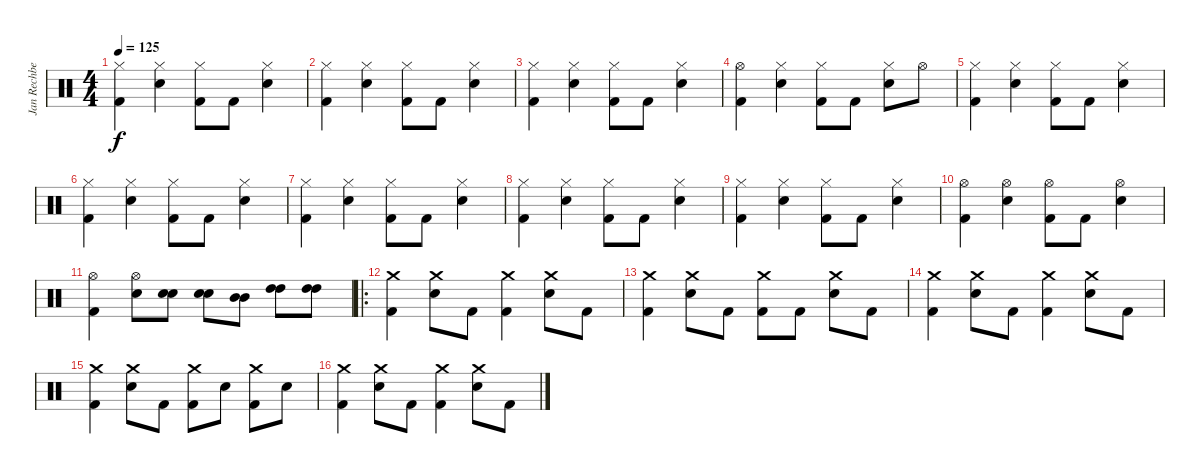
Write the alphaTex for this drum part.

\track ("Jan Rechberger" "Jan Rechbe") {instrument percussion}
\staff {score}
\articulation defaults
\ts (4 4)
\tempo 125
\clef neutral
\ks c
("Hi-Hat (closed)" "Kick (hit) 2").4{dy f} ("Hi-Hat (closed)" "Electric Snare (hit)").4 ("Hi-Hat (closed)" "Kick (hit) 2").8 "Kick (hit) 2".8 ("Hi-Hat (closed)" "Electric Snare (hit)").4 |
("Hi-Hat (closed)" "Kick (hit) 2").4 ("Hi-Hat (closed)" "Electric Snare (hit)").4 ("Hi-Hat (closed)" "Kick (hit) 2").8 "Kick (hit) 2".8 ("Hi-Hat (closed)" "Electric Snare (hit)").4 |
("Hi-Hat (closed)" "Kick (hit) 2").4 ("Hi-Hat (closed)" "Electric Snare (hit)").4 ("Hi-Hat (closed)" "Kick (hit) 2").8 "Kick (hit) 2".8 ("Hi-Hat (closed)" "Electric Snare (hit)").4 |
("Hi-Hat (open)" "Kick (hit) 2").4 ("Hi-Hat (closed)" "Electric Snare (hit)").4 ("Hi-Hat (closed)" "Kick (hit) 2").8 "Kick (hit) 2".8 ("Hi-Hat (closed)" "Electric Snare (hit)").8 "Hi-Hat (open)".8 |
("Hi-Hat (closed)" "Kick (hit) 2").4 ("Hi-Hat (closed)" "Electric Snare (hit)").4 ("Hi-Hat (closed)" "Kick (hit) 2").8 "Kick (hit) 2".8 ("Hi-Hat (closed)" "Electric Snare (hit)").4 |
("Hi-Hat (closed)" "Kick (hit) 2").4 ("Hi-Hat (closed)" "Electric Snare (hit)").4 ("Hi-Hat (closed)" "Kick (hit) 2").8 "Kick (hit) 2".8 ("Hi-Hat (closed)" "Electric Snare (hit)").4 |
("Hi-Hat (closed)" "Kick (hit) 2").4 ("Hi-Hat (closed)" "Electric Snare (hit)").4 ("Hi-Hat (closed)" "Kick (hit) 2").8 "Kick (hit) 2".8 ("Hi-Hat (closed)" "Electric Snare (hit)").4 |
("Hi-Hat (closed)" "Kick (hit) 2").4 ("Hi-Hat (closed)" "Electric Snare (hit)").4 ("Hi-Hat (closed)" "Kick (hit) 2").8 "Kick (hit) 2".8 ("Hi-Hat (closed)" "Electric Snare (hit)").4 |
("Hi-Hat (closed)" "Kick (hit) 2").4 ("Hi-Hat (closed)" "Electric Snare (hit)").4 ("Hi-Hat (closed)" "Kick (hit) 2").8 "Kick (hit) 2".8 ("Hi-Hat (closed)" "Electric Snare (hit)").4 |
("Hi-Hat (open)" "Kick (hit) 2").4 ("Hi-Hat (open)" "Electric Snare (hit)").4 ("Hi-Hat (open)" "Kick (hit) 2").8 "Kick (hit) 2".8 ("Hi-Hat (open)" "Electric Snare (hit)").4 |
("Hi-Hat (open)" "Kick (hit) 2").4 ("Hi-Hat (open)" "Electric Snare (hit)").8 ("Electric Snare (hit)" "Electric Snare (hit)").8 ("Electric Snare (hit)" "Electric Snare (hit)").8 ("Mid Tom (hit)" "Mid Tom (hit)").8 ("High Tom (hit)" "High Tom (hit)").8 ("High Tom (hit)" "High Tom (hit)").8 |
\ro
("Crash medium (hit)" "Kick (hit) 2").4 ("Crash medium (hit)" "Electric Snare (hit)").8 "Kick (hit) 2".8 ("Crash medium (hit)" "Kick (hit) 2").4 ("Crash medium (hit)" "Electric Snare (hit)").8 "Kick (hit) 2".8 |
("Crash medium (hit)" "Kick (hit) 2").4 ("Crash medium (hit)" "Electric Snare (hit)").8 "Kick (hit) 2".8 ("Crash medium (hit)" "Kick (hit) 2").8 "Kick (hit) 2".8 ("Crash medium (hit)" "Electric Snare (hit)").8 "Kick (hit) 2".8 |
("Crash medium (hit)" "Kick (hit) 2").4 ("Crash medium (hit)" "Electric Snare (hit)").8 "Kick (hit) 2".8 ("Crash medium (hit)" "Kick (hit) 2").4 ("Crash medium (hit)" "Electric Snare (hit)").8 "Kick (hit) 2".8 |
("Crash medium (hit)" "Kick (hit) 2").4 ("Crash medium (hit)" "Electric Snare (hit)").8 "Kick (hit) 2".8 ("Crash medium (hit)" "Kick (hit) 2").8 "Electric Snare (hit)".8 ("Crash medium (hit)" "Kick (hit) 2").8 "Electric Snare (hit)".8 |
("Crash medium (hit)" "Kick (hit) 2").4 ("Crash medium (hit)" "Electric Snare (hit)").8 "Kick (hit) 2".8 ("Crash medium (hit)" "Kick (hit) 2").4 ("Crash medium (hit)" "Electric Snare (hit)").8 "Kick (hit) 2".8
